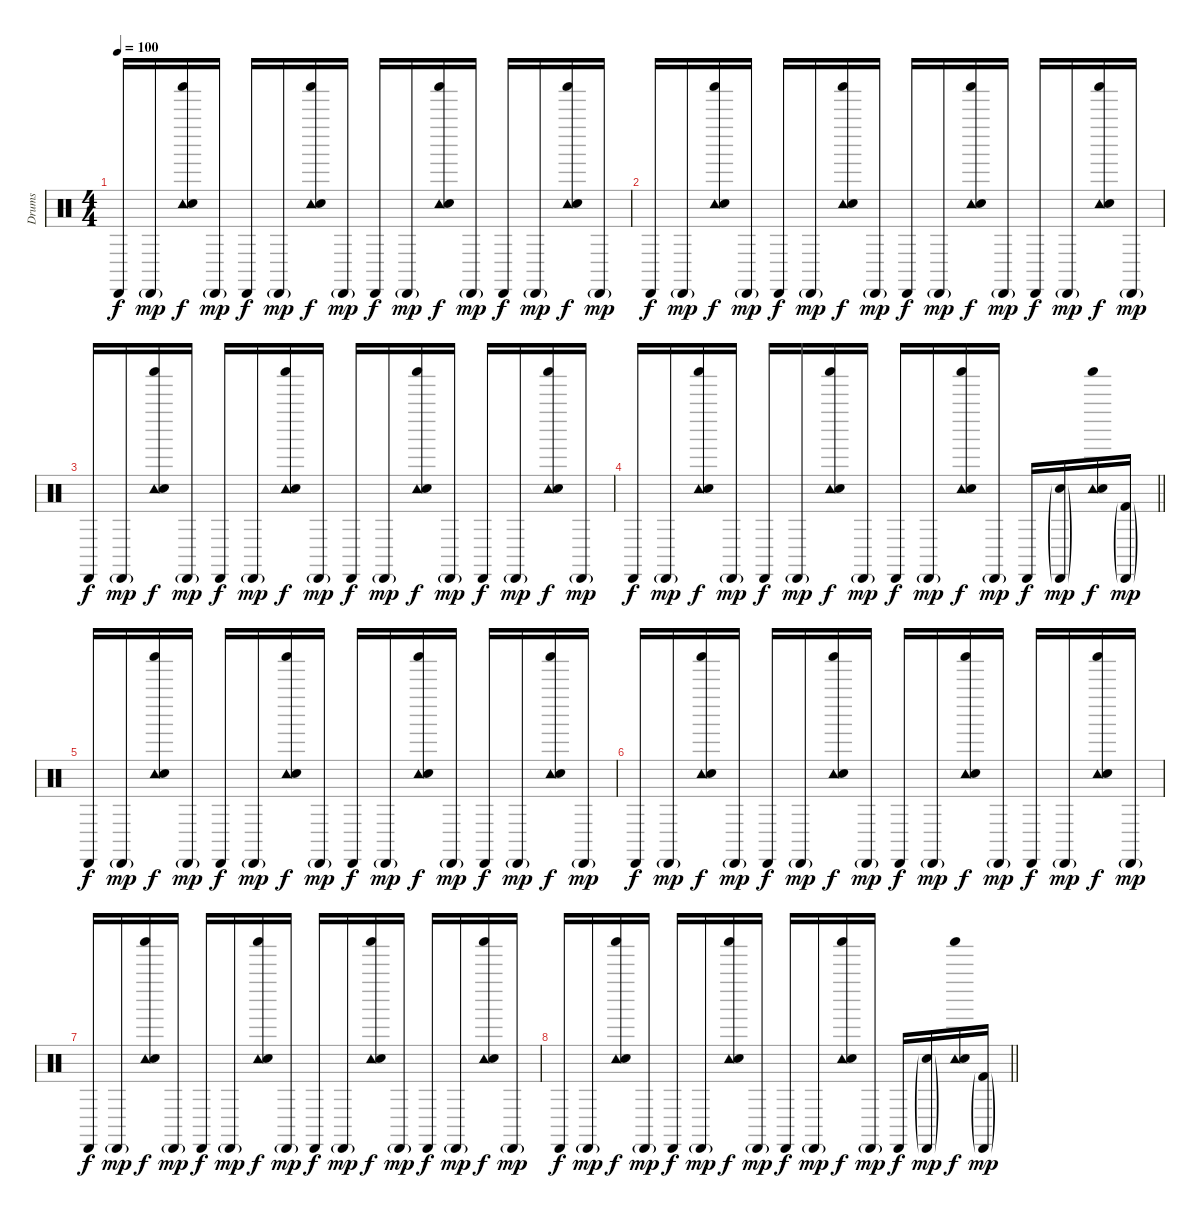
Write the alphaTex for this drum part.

\track ("Drums" "Drums") {instrument percussion}
\staff {score}
\articulation defaults
\ts (4 4)
\tempo 100
\clef neutral
\ks c "Cabasa (hit)".16{dy f} "Cabasa (hit)"{g}.16{dy mp}
("Tambourine (hit)" "Shaker (hit)" "Electric Snare (hit)").16{dy f} "Cabasa (hit)"{g}.16{dy mp} "Cabasa (hit)".16{dy f} "Cabasa (hit)"{g}.16{dy mp} ("Tambourine (hit)" "Shaker (hit)" "Electric Snare (hit)").16{dy f} "Cabasa (hit)"{g}.16{dy mp} "Cabasa (hit)".16{dy f} "Cabasa (hit)"{g}.16{dy mp} ("Tambourine (hit)" "Shaker (hit)" "Electric Snare (hit)").16{dy f} "Cabasa (hit)"{g}.16{dy mp} "Cabasa (hit)".16{dy f} "Cabasa (hit)"{g}.16{dy mp} ("Tambourine (hit)" "Shaker (hit)" "Electric Snare (hit)").16{dy f} "Cabasa (hit)"{g}.16{dy mp} |
"Cabasa (hit)".16{dy f} "Cabasa (hit)"{g}.16{dy mp} ("Tambourine (hit)" "Shaker (hit)" "Electric Snare (hit)").16{dy f} "Cabasa (hit)"{g}.16{dy mp} "Cabasa (hit)".16{dy f} "Cabasa (hit)"{g}.16{dy mp} ("Tambourine (hit)" "Shaker (hit)" "Electric Snare (hit)").16{dy f} "Cabasa (hit)"{g}.16{dy mp} "Cabasa (hit)".16{dy f} "Cabasa (hit)"{g}.16{dy mp} ("Tambourine (hit)" "Shaker (hit)" "Electric Snare (hit)").16{dy f} "Cabasa (hit)"{g}.16{dy mp} "Cabasa (hit)".16{dy f} "Cabasa (hit)"{g}.16{dy mp} ("Tambourine (hit)" "Shaker (hit)" "Electric Snare (hit)").16{dy f} "Cabasa (hit)"{g}.16{dy mp} |
"Cabasa (hit)".16{dy f} "Cabasa (hit)"{g}.16{dy mp} ("Tambourine (hit)" "Shaker (hit)" "Electric Snare (hit)").16{dy f} "Cabasa (hit)"{g}.16{dy mp} "Cabasa (hit)".16{dy f} "Cabasa (hit)"{g}.16{dy mp} ("Tambourine (hit)" "Shaker (hit)" "Electric Snare (hit)").16{dy f} "Cabasa (hit)"{g}.16{dy mp} "Cabasa (hit)".16{dy f} "Cabasa (hit)"{g}.16{dy mp} ("Tambourine (hit)" "Shaker (hit)" "Electric Snare (hit)").16{dy f} "Cabasa (hit)"{g}.16{dy mp} "Cabasa (hit)".16{dy f} "Cabasa (hit)"{g}.16{dy mp} ("Tambourine (hit)" "Shaker (hit)" "Electric Snare (hit)").16{dy f} "Cabasa (hit)"{g}.16{dy mp} |
\barLineRight lightlight "Cabasa (hit)".16{dy f} "Cabasa (hit)"{g}.16{dy mp}
("Tambourine (hit)" "Shaker (hit)" "Electric Snare (hit)").16{dy f} "Cabasa (hit)"{g}.16{dy mp} "Cabasa (hit)".16{dy f} "Cabasa (hit)"{g}.16{dy mp} ("Tambourine (hit)" "Shaker (hit)" "Electric Snare (hit)").16{dy f} "Cabasa (hit)"{g}.16{dy mp} "Cabasa (hit)".16{dy f} "Cabasa (hit)"{g}.16{dy mp} ("Tambourine (hit)" "Shaker (hit)" "Electric Snare (hit)").16{dy f} "Cabasa (hit)"{g}.16{dy mp} "Cabasa (hit)".16{dy f} ("Cabasa (hit)"{g} "Electric Snare (hit)"{g}).16{dy mp} ("Tambourine (hit)" "Shaker (hit)" "Electric Snare (hit)").16{dy f} ("Cabasa (hit)"{g} "Kick (hit) 2"{g}).16{dy mp} |
"Cabasa (hit)".16{dy f} "Cabasa (hit)"{g}.16{dy mp} ("Tambourine (hit)" "Shaker (hit)" "Electric Snare (hit)").16{dy f} "Cabasa (hit)"{g}.16{dy mp} "Cabasa (hit)".16{dy f} "Cabasa (hit)"{g}.16{dy mp} ("Tambourine (hit)" "Shaker (hit)" "Electric Snare (hit)").16{dy f} "Cabasa (hit)"{g}.16{dy mp} "Cabasa (hit)".16{dy f} "Cabasa (hit)"{g}.16{dy mp} ("Tambourine (hit)" "Shaker (hit)" "Electric Snare (hit)").16{dy f} "Cabasa (hit)"{g}.16{dy mp} "Cabasa (hit)".16{dy f} "Cabasa (hit)"{g}.16{dy mp} ("Tambourine (hit)" "Shaker (hit)" "Electric Snare (hit)").16{dy f} "Cabasa (hit)"{g}.16{dy mp} |
"Cabasa (hit)".16{dy f} "Cabasa (hit)"{g}.16{dy mp} ("Tambourine (hit)" "Shaker (hit)" "Electric Snare (hit)").16{dy f} "Cabasa (hit)"{g}.16{dy mp} "Cabasa (hit)".16{dy f} "Cabasa (hit)"{g}.16{dy mp} ("Tambourine (hit)" "Shaker (hit)" "Electric Snare (hit)").16{dy f} "Cabasa (hit)"{g}.16{dy mp} "Cabasa (hit)".16{dy f} "Cabasa (hit)"{g}.16{dy mp} ("Tambourine (hit)" "Shaker (hit)" "Electric Snare (hit)").16{dy f} "Cabasa (hit)"{g}.16{dy mp} "Cabasa (hit)".16{dy f} "Cabasa (hit)"{g}.16{dy mp} ("Tambourine (hit)" "Shaker (hit)" "Electric Snare (hit)").16{dy f} "Cabasa (hit)"{g}.16{dy mp} |
"Cabasa (hit)".16{dy f} "Cabasa (hit)"{g}.16{dy mp} ("Tambourine (hit)" "Shaker (hit)" "Electric Snare (hit)").16{dy f} "Cabasa (hit)"{g}.16{dy mp} "Cabasa (hit)".16{dy f} "Cabasa (hit)"{g}.16{dy mp} ("Tambourine (hit)" "Shaker (hit)" "Electric Snare (hit)").16{dy f} "Cabasa (hit)"{g}.16{dy mp} "Cabasa (hit)".16{dy f} "Cabasa (hit)"{g}.16{dy mp} ("Tambourine (hit)" "Shaker (hit)" "Electric Snare (hit)").16{dy f} "Cabasa (hit)"{g}.16{dy mp} "Cabasa (hit)".16{dy f} "Cabasa (hit)"{g}.16{dy mp} ("Tambourine (hit)" "Shaker (hit)" "Electric Snare (hit)").16{dy f} "Cabasa (hit)"{g}.16{dy mp} |
\barLineRight lightlight "Cabasa (hit)".16{dy f} "Cabasa (hit)"{g}.16{dy mp}
("Tambourine (hit)" "Shaker (hit)" "Electric Snare (hit)").16{dy f} "Cabasa (hit)"{g}.16{dy mp} "Cabasa (hit)".16{dy f} "Cabasa (hit)"{g}.16{dy mp} ("Tambourine (hit)" "Shaker (hit)" "Electric Snare (hit)").16{dy f} "Cabasa (hit)"{g}.16{dy mp} "Cabasa (hit)".16{dy f} "Cabasa (hit)"{g}.16{dy mp} ("Tambourine (hit)" "Shaker (hit)" "Electric Snare (hit)").16{dy f} "Cabasa (hit)"{g}.16{dy mp} "Cabasa (hit)".16{dy f} ("Cabasa (hit)"{g} "Electric Snare (hit)"{g}).16{dy mp} ("Tambourine (hit)" "Shaker (hit)" "Electric Snare (hit)").16{dy f} ("Cabasa (hit)"{g} "Kick (hit) 2"{g}).16{dy mp}
